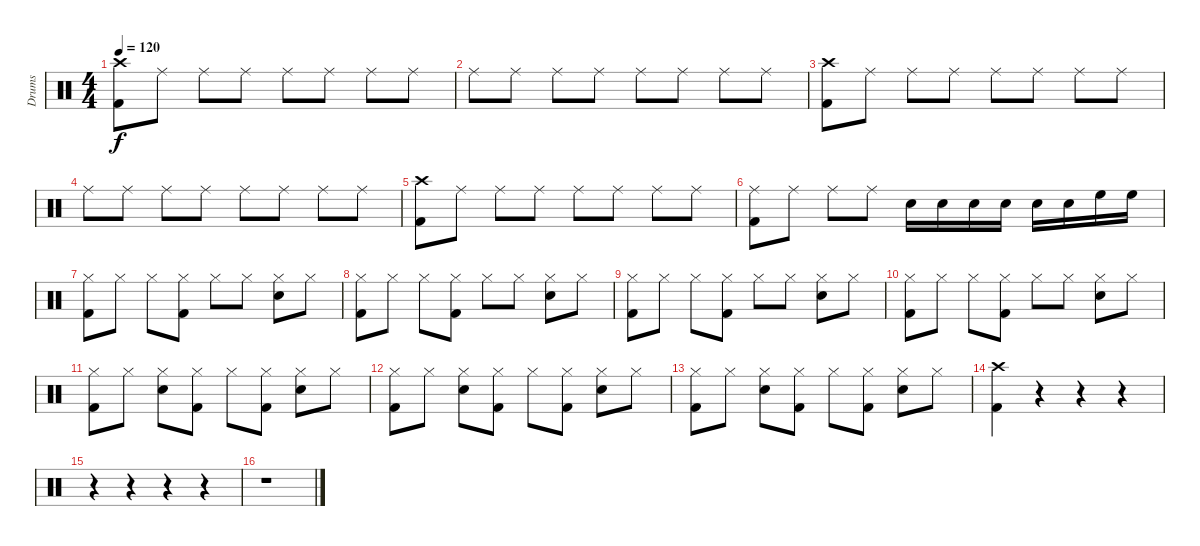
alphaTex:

\track ("Drums" "Drums") {instrument percussion}
\staff {score}
\articulation defaults
\ts (4 4)
\tempo 120
\clef neutral
\ks c
("Crash high (hit)" "Kick (hit) 2").8{dy f} "Ride (middle)".8 "Ride (middle)".8 "Ride (middle)".8 "Ride (middle)".8 "Ride (middle)".8 "Ride (middle)".8 "Ride (middle)".8 |
"Ride (middle)".8 "Ride (middle)".8 "Ride (middle)".8 "Ride (middle)".8 "Ride (middle)".8 "Ride (middle)".8 "Ride (middle)".8 "Ride (middle)".8 |
("Crash high (hit)" "Kick (hit) 2").8 "Ride (middle)".8 "Ride (middle)".8 "Ride (middle)".8 "Ride (middle)".8 "Ride (middle)".8 "Ride (middle)".8 "Ride (middle)".8 |
"Ride (middle)".8 "Ride (middle)".8 "Ride (middle)".8 "Ride (middle)".8 "Ride (middle)".8 "Ride (middle)".8 "Ride (middle)".8 "Ride (middle)".8 |
("Crash high (hit)" "Kick (hit) 2").8 "Ride (middle)".8 "Ride (middle)".8 "Ride (middle)".8 "Ride (middle)".8 "Ride (middle)".8 "Ride (middle)".8 "Ride (middle)".8 |
("Ride (middle)" "Kick (hit) 2").8 "Ride (middle)".8 "Ride (middle)".8{volume 6} "Ride (middle)".8 "Snare (hit) 2".16{volume 10} "Snare (hit) 2".16 "Snare (hit) 2".16{volume 12} "Snare (hit) 2".16 "Snare (hit) 2".16{volume 14} "Snare (hit) 2".16 "High Floor Tom (hit)".16 "High Floor Tom (hit)".16 |
("Hi-Hat (closed)" "Kick (hit) 2").8 "Hi-Hat (closed)".8 "Hi-Hat (closed)".8 ("Hi-Hat (closed)" "Kick (hit) 2").8 "Hi-Hat (closed)".8 "Hi-Hat (closed)".8 ("Hi-Hat (closed)" "Snare (hit) 2").8 "Hi-Hat (closed)".8 |
("Hi-Hat (closed)" "Kick (hit) 2").8 "Hi-Hat (closed)".8 "Hi-Hat (closed)".8 ("Hi-Hat (closed)" "Kick (hit) 2").8 "Hi-Hat (closed)".8 "Hi-Hat (closed)".8 ("Hi-Hat (closed)" "Snare (hit) 2").8 "Hi-Hat (closed)".8 |
("Hi-Hat (closed)" "Kick (hit) 2").8 "Hi-Hat (closed)".8 "Hi-Hat (closed)".8 ("Hi-Hat (closed)" "Kick (hit) 2").8 "Hi-Hat (closed)".8 "Hi-Hat (closed)".8 ("Hi-Hat (closed)" "Snare (hit) 2").8 "Hi-Hat (closed)".8 |
("Hi-Hat (closed)" "Kick (hit) 2").8 "Hi-Hat (closed)".8 "Hi-Hat (closed)".8 ("Hi-Hat (closed)" "Kick (hit) 2").8 "Hi-Hat (closed)".8 "Hi-Hat (closed)".8 ("Hi-Hat (closed)" "Snare (hit) 2").8 "Hi-Hat (closed)".8 |
("Hi-Hat (closed)" "Kick (hit) 2").8 "Hi-Hat (closed)".8 ("Hi-Hat (closed)" "Snare (hit) 2").8 ("Hi-Hat (closed)" "Kick (hit) 2").8 "Hi-Hat (closed)".8 ("Hi-Hat (closed)" "Kick (hit) 2").8 ("Hi-Hat (closed)" "Snare (hit) 2").8 "Hi-Hat (closed)".8 |
("Hi-Hat (closed)" "Kick (hit) 2").8 "Hi-Hat (closed)".8 ("Hi-Hat (closed)" "Snare (hit) 2").8 ("Hi-Hat (closed)" "Kick (hit) 2").8 "Hi-Hat (closed)".8 ("Hi-Hat (closed)" "Kick (hit) 2").8 ("Hi-Hat (closed)" "Snare (hit) 2").8 "Hi-Hat (closed)".8 |
("Hi-Hat (closed)" "Kick (hit) 2").8 "Hi-Hat (closed)".8 ("Hi-Hat (closed)" "Snare (hit) 2").8 ("Hi-Hat (closed)" "Kick (hit) 2").8 "Hi-Hat (closed)".8 ("Hi-Hat (closed)" "Kick (hit) 2").8 ("Hi-Hat (closed)" "Snare (hit) 2").8 "Hi-Hat (closed)".8 |
("Crash high (hit)" "Kick (hit) 2").4 r.4 r.4 r.4 |
r.4 r.4 r.4 r.4 |
r.1
